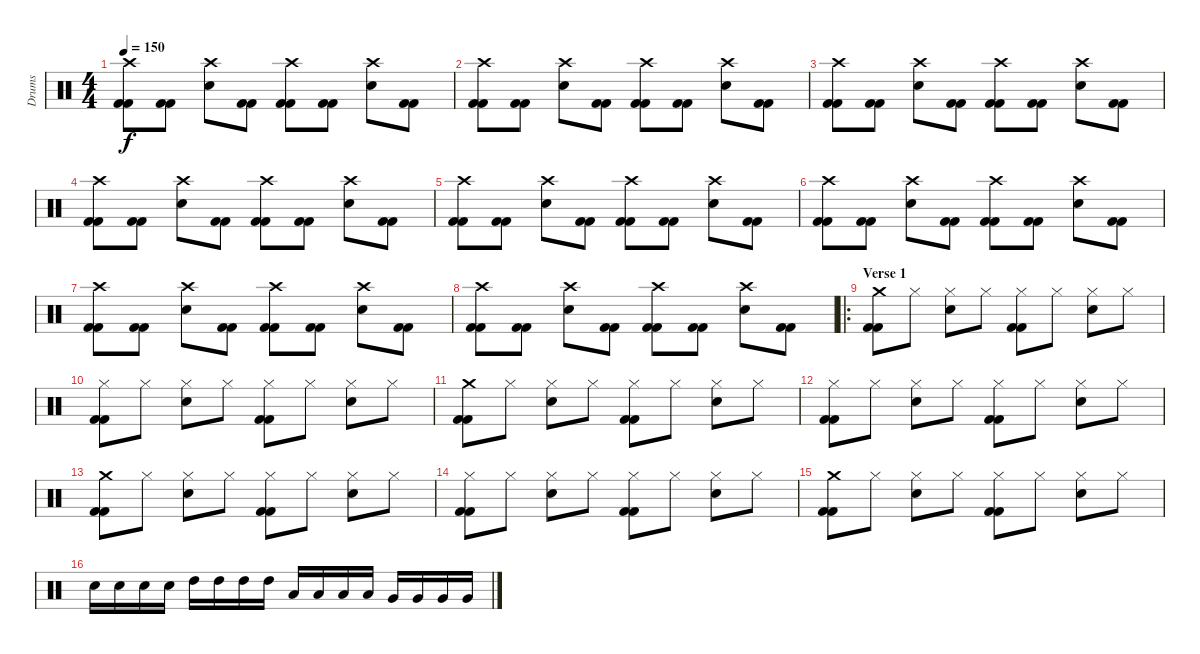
\track ("Drums" "Drums") {instrument percussion}
\staff {score}
\articulation defaults
\ts (4 4)
\tempo 150
\clef neutral
\ks c
("Crash high (hit)" "Kick (hit) 2" "Kick (hit) 2").8{dy f} ("Kick (hit) 2" "Kick (hit) 2").8 ("Electric Snare (hit)" "Crash high (hit)").8 ("Kick (hit) 2" "Kick (hit) 2").8 ("Crash high (hit)" "Kick (hit) 2" "Kick (hit) 2").8 ("Kick (hit) 2" "Kick (hit) 2").8 ("Electric Snare (hit)" "Crash high (hit)").8 ("Kick (hit) 2" "Kick (hit) 2").8 |
("Crash high (hit)" "Kick (hit) 2" "Kick (hit) 2").8 ("Kick (hit) 2" "Kick (hit) 2").8 ("Electric Snare (hit)" "Crash high (hit)").8 ("Kick (hit) 2" "Kick (hit) 2").8 ("Crash high (hit)" "Kick (hit) 2" "Kick (hit) 2").8 ("Kick (hit) 2" "Kick (hit) 2").8 ("Electric Snare (hit)" "Crash high (hit)").8 ("Kick (hit) 2" "Kick (hit) 2").8 |
("Crash high (hit)" "Kick (hit) 2" "Kick (hit) 2").8 ("Kick (hit) 2" "Kick (hit) 2").8 ("Electric Snare (hit)" "Crash high (hit)").8 ("Kick (hit) 2" "Kick (hit) 2").8 ("Crash high (hit)" "Kick (hit) 2" "Kick (hit) 2").8 ("Kick (hit) 2" "Kick (hit) 2").8 ("Electric Snare (hit)" "Crash high (hit)").8 ("Kick (hit) 2" "Kick (hit) 2").8 |
("Crash high (hit)" "Kick (hit) 2" "Kick (hit) 2").8 ("Kick (hit) 2" "Kick (hit) 2").8 ("Electric Snare (hit)" "Crash high (hit)").8 ("Kick (hit) 2" "Kick (hit) 2").8 ("Crash high (hit)" "Kick (hit) 2" "Kick (hit) 2").8 ("Kick (hit) 2" "Kick (hit) 2").8 ("Electric Snare (hit)" "Crash high (hit)").8 ("Kick (hit) 2" "Kick (hit) 2").8 |
("Crash high (hit)" "Kick (hit) 2" "Kick (hit) 2").8 ("Kick (hit) 2" "Kick (hit) 2").8 ("Electric Snare (hit)" "Crash high (hit)").8 ("Kick (hit) 2" "Kick (hit) 2").8 ("Crash high (hit)" "Kick (hit) 2" "Kick (hit) 2").8 ("Kick (hit) 2" "Kick (hit) 2").8 ("Electric Snare (hit)" "Crash high (hit)").8 ("Kick (hit) 2" "Kick (hit) 2").8 |
("Crash high (hit)" "Kick (hit) 2" "Kick (hit) 2").8 ("Kick (hit) 2" "Kick (hit) 2").8 ("Electric Snare (hit)" "Crash high (hit)").8 ("Kick (hit) 2" "Kick (hit) 2").8 ("Crash high (hit)" "Kick (hit) 2" "Kick (hit) 2").8 ("Kick (hit) 2" "Kick (hit) 2").8 ("Electric Snare (hit)" "Crash high (hit)").8 ("Kick (hit) 2" "Kick (hit) 2").8 |
("Crash high (hit)" "Kick (hit) 2" "Kick (hit) 2").8 ("Kick (hit) 2" "Kick (hit) 2").8 ("Electric Snare (hit)" "Crash high (hit)").8 ("Kick (hit) 2" "Kick (hit) 2").8 ("Crash high (hit)" "Kick (hit) 2" "Kick (hit) 2").8 ("Kick (hit) 2" "Kick (hit) 2").8 ("Electric Snare (hit)" "Crash high (hit)").8 ("Kick (hit) 2" "Kick (hit) 2").8 |
("Crash high (hit)" "Kick (hit) 2" "Kick (hit) 2").8 ("Kick (hit) 2" "Kick (hit) 2").8 ("Electric Snare (hit)" "Crash high (hit)").8 ("Kick (hit) 2" "Kick (hit) 2").8 ("Crash high (hit)" "Kick (hit) 2" "Kick (hit) 2").8 ("Kick (hit) 2" "Kick (hit) 2").8 ("Electric Snare (hit)" "Crash high (hit)").8 ("Kick (hit) 2" "Kick (hit) 2").8 |
\ro
\section ("" "Verse 1")
("Crash medium (hit)" "Kick (hit) 2" "Kick (hit) 2").8 "Hi-Hat (closed)".8 ("Electric Snare (hit)" "Hi-Hat (closed)").8 "Hi-Hat (closed)".8 ("Hi-Hat (closed)" "Kick (hit) 2" "Kick (hit) 2").8 "Hi-Hat (closed)".8 ("Electric Snare (hit)" "Hi-Hat (closed)").8 "Hi-Hat (closed)".8 |
("Hi-Hat (closed)" "Kick (hit) 2" "Kick (hit) 2").8 "Hi-Hat (closed)".8 ("Electric Snare (hit)" "Hi-Hat (closed)").8 "Hi-Hat (closed)".8 ("Hi-Hat (closed)" "Kick (hit) 2" "Kick (hit) 2").8 "Hi-Hat (closed)".8 ("Electric Snare (hit)" "Hi-Hat (closed)").8 "Hi-Hat (closed)".8 |
("Crash medium (hit)" "Kick (hit) 2" "Kick (hit) 2").8 "Hi-Hat (closed)".8 ("Electric Snare (hit)" "Hi-Hat (closed)").8 "Hi-Hat (closed)".8 ("Hi-Hat (closed)" "Kick (hit) 2" "Kick (hit) 2").8 "Hi-Hat (closed)".8 ("Electric Snare (hit)" "Hi-Hat (closed)").8 "Hi-Hat (closed)".8 |
("Hi-Hat (closed)" "Kick (hit) 2" "Kick (hit) 2").8 "Hi-Hat (closed)".8 ("Electric Snare (hit)" "Hi-Hat (closed)").8 "Hi-Hat (closed)".8 ("Hi-Hat (closed)" "Kick (hit) 2" "Kick (hit) 2").8 "Hi-Hat (closed)".8 ("Electric Snare (hit)" "Hi-Hat (closed)").8 "Hi-Hat (closed)".8 |
("Crash medium (hit)" "Kick (hit) 2" "Kick (hit) 2").8 "Hi-Hat (closed)".8 ("Electric Snare (hit)" "Hi-Hat (closed)").8 "Hi-Hat (closed)".8 ("Hi-Hat (closed)" "Kick (hit) 2" "Kick (hit) 2").8 "Hi-Hat (closed)".8 ("Electric Snare (hit)" "Hi-Hat (closed)").8 "Hi-Hat (closed)".8 |
("Hi-Hat (closed)" "Kick (hit) 2" "Kick (hit) 2").8 "Hi-Hat (closed)".8 ("Electric Snare (hit)" "Hi-Hat (closed)").8 "Hi-Hat (closed)".8 ("Hi-Hat (closed)" "Kick (hit) 2" "Kick (hit) 2").8 "Hi-Hat (closed)".8 ("Electric Snare (hit)" "Hi-Hat (closed)").8 "Hi-Hat (closed)".8 |
("Crash medium (hit)" "Kick (hit) 2" "Kick (hit) 2").8 "Hi-Hat (closed)".8 ("Electric Snare (hit)" "Hi-Hat (closed)").8 "Hi-Hat (closed)".8 ("Hi-Hat (closed)" "Kick (hit) 2" "Kick (hit) 2").8 "Hi-Hat (closed)".8 ("Electric Snare (hit)" "Hi-Hat (closed)").8 "Hi-Hat (closed)".8 |
"Electric Snare (hit)".16 "Electric Snare (hit)".16 "Electric Snare (hit)".16 "Electric Snare (hit)".16 "High Tom (hit)".16 "High Tom (hit)".16 "High Tom (hit)".16 "High Tom (hit)".16 "Low Tom (hit)".16 "Low Tom (hit)".16 "Low Tom (hit)".16 "Low Tom (hit)".16 "Very Low Tom (hit)".16 "Very Low Tom (hit)".16 "Very Low Tom (hit)".16 "Very Low Tom (hit)".16
